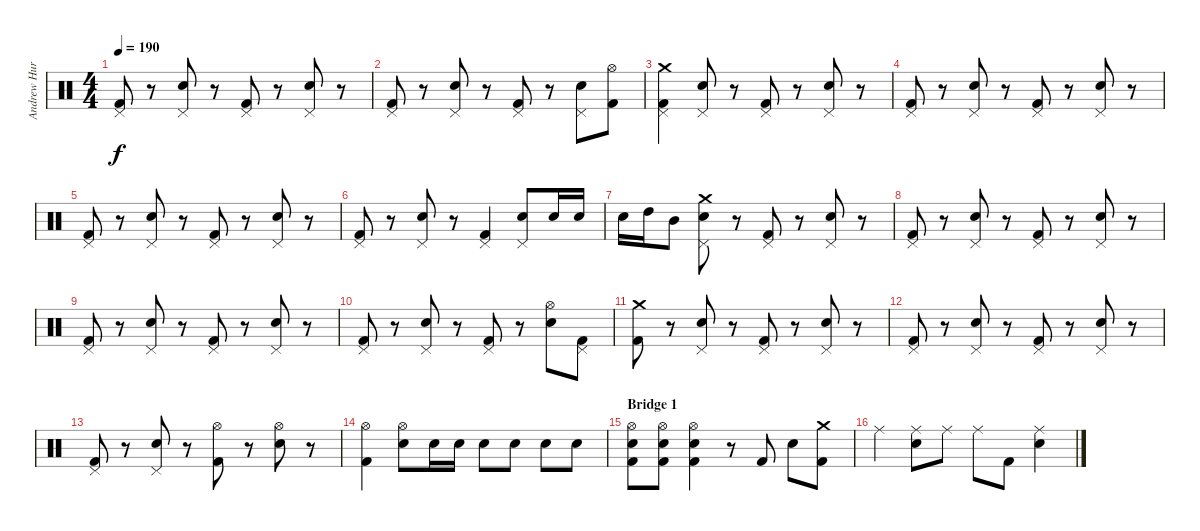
\track ("Andrew Hurley (Drums)" "Andrew Hur") {instrument percussion}
\staff {score}
\articulation defaults
\ts (4 4)
\tempo 190
\clef neutral
\ks c
("Pedal Hi-Hat (hit)" "Kick (hit) 2").8{dy f} r.8 ("Pedal Hi-Hat (hit)" "Electric Snare (hit)").8 r.8 ("Pedal Hi-Hat (hit)" "Kick (hit) 2").8 r.8 ("Pedal Hi-Hat (hit)" "Electric Snare (hit)").8 r.8 |
("Pedal Hi-Hat (hit)" "Kick (hit) 2").8 r.8 ("Pedal Hi-Hat (hit)" "Electric Snare (hit)").8 r.8 ("Pedal Hi-Hat (hit)" "Kick (hit) 2").8 r.8 ("Pedal Hi-Hat (hit)" "Electric Snare (hit)").8 ("Hi-Hat (open)" "Kick (hit) 2").8 |
("Crash medium (hit)" "Pedal Hi-Hat (hit)" "Kick (hit) 2").4 ("Pedal Hi-Hat (hit)" "Electric Snare (hit)").8 r.8 ("Pedal Hi-Hat (hit)" "Kick (hit) 2").8 r.8 ("Pedal Hi-Hat (hit)" "Electric Snare (hit)").8 r.8 |
("Pedal Hi-Hat (hit)" "Kick (hit) 2").8 r.8 ("Pedal Hi-Hat (hit)" "Electric Snare (hit)").8 r.8 ("Pedal Hi-Hat (hit)" "Kick (hit) 2").8 r.8 ("Pedal Hi-Hat (hit)" "Electric Snare (hit)").8 r.8 |
("Pedal Hi-Hat (hit)" "Kick (hit) 2").8 r.8 ("Pedal Hi-Hat (hit)" "Electric Snare (hit)").8 r.8 ("Pedal Hi-Hat (hit)" "Kick (hit) 2").8 r.8 ("Pedal Hi-Hat (hit)" "Electric Snare (hit)").8 r.8 |
("Pedal Hi-Hat (hit)" "Kick (hit) 2").8 r.8 ("Pedal Hi-Hat (hit)" "Electric Snare (hit)").8 r.8 ("Pedal Hi-Hat (hit)" "Kick (hit) 2").4 ("Pedal Hi-Hat (hit)" "Electric Snare (hit)").8 "Electric Snare (hit)".16 "Electric Snare (hit)".16 |
"Electric Snare (hit)".16 "High Tom (hit)".16 "Mid Tom (hit)".8 ("Crash medium (hit)" "Pedal Hi-Hat (hit)" "Electric Snare (hit)").8 r.8 ("Pedal Hi-Hat (hit)" "Kick (hit) 2").8 r.8 ("Pedal Hi-Hat (hit)" "Electric Snare (hit)").8 r.8 |
("Pedal Hi-Hat (hit)" "Kick (hit) 2").8 r.8 ("Pedal Hi-Hat (hit)" "Electric Snare (hit)").8 r.8 ("Pedal Hi-Hat (hit)" "Kick (hit) 2").8 r.8 ("Pedal Hi-Hat (hit)" "Electric Snare (hit)").8 r.8 |
("Pedal Hi-Hat (hit)" "Kick (hit) 2").8 r.8 ("Pedal Hi-Hat (hit)" "Electric Snare (hit)").8 r.8 ("Pedal Hi-Hat (hit)" "Kick (hit) 2").8 r.8 ("Pedal Hi-Hat (hit)" "Electric Snare (hit)").8 r.8 |
("Pedal Hi-Hat (hit)" "Kick (hit) 2").8 r.8 ("Pedal Hi-Hat (hit)" "Electric Snare (hit)").8 r.8 ("Pedal Hi-Hat (hit)" "Kick (hit) 2").8 r.8 ("Hi-Hat (open)" "Electric Snare (hit)").8 ("Pedal Hi-Hat (hit)" "Kick (hit) 2").8 |
("Crash medium (hit)" "Kick (hit) 2").8 r.8 ("Pedal Hi-Hat (hit)" "Electric Snare (hit)").8 r.8 ("Pedal Hi-Hat (hit)" "Kick (hit) 2").8 r.8 ("Pedal Hi-Hat (hit)" "Electric Snare (hit)").8 r.8 |
("Pedal Hi-Hat (hit)" "Kick (hit) 2").8 r.8 ("Pedal Hi-Hat (hit)" "Electric Snare (hit)").8 r.8 ("Pedal Hi-Hat (hit)" "Kick (hit) 2").8 r.8 ("Pedal Hi-Hat (hit)" "Electric Snare (hit)").8 r.8 |
("Pedal Hi-Hat (hit)" "Kick (hit) 2").8 r.8 ("Pedal Hi-Hat (hit)" "Electric Snare (hit)").8 r.8 ("Hi-Hat (open)" "Kick (hit) 2").8 r.8 ("Hi-Hat (open)" "Electric Snare (hit)").8 r.8 |
("Hi-Hat (open)" "Kick (hit) 2").4 ("Hi-Hat (open)" "Electric Snare (hit)").8 "Electric Snare (hit)".16 "Electric Snare (hit)".16 "Electric Snare (hit)".8 "Electric Snare (hit)".8 "Electric Snare (hit)".8 "Electric Snare (hit)".8 |
\section ("" "Bridge 1")
("Hi-Hat (open)" "Electric Snare (hit)" "Kick (hit) 2").8 ("Hi-Hat (open)" "Electric Snare (hit)" "Kick (hit) 2").8 ("Hi-Hat (open)" "Electric Snare (hit)" "Kick (hit) 2").4 r.8 "Kick (hit) 2".8 "Electric Snare (hit)".8 ("Crash medium (hit)" "Kick (hit) 2").8 |
"Ride (middle)".4 ("Ride (middle)" "Electric Snare (hit)").8 "Ride (middle)".8 "Ride (middle)".8 "Kick (hit) 2".8 ("Ride (middle)" "Electric Snare (hit)").4
